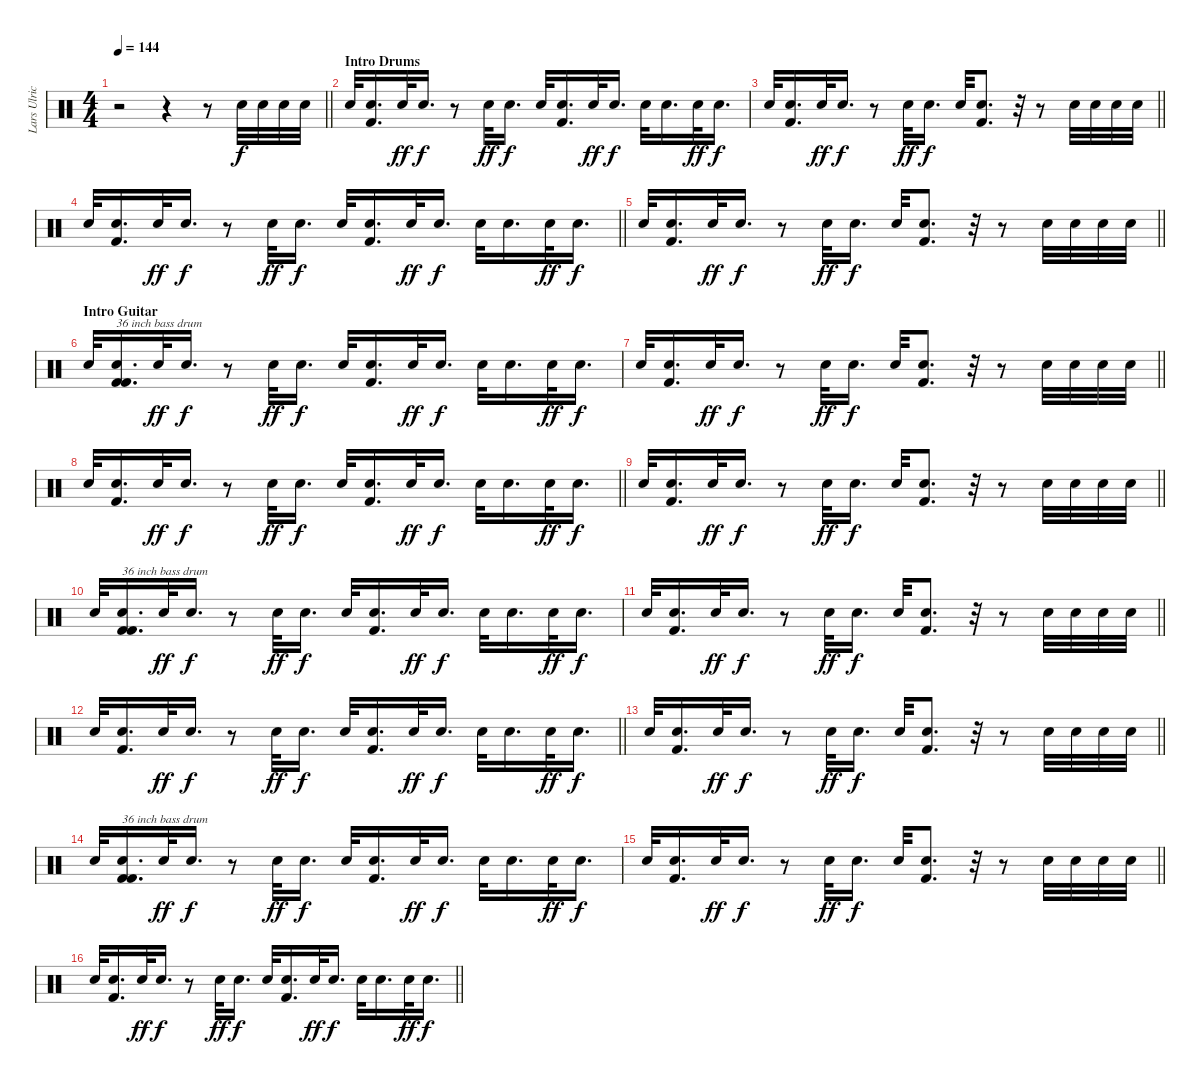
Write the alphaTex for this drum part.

\track ("Lars Ulrich" "Lars Ulric") {instrument percussion}
\staff {score}
\articulation defaults
\ts (4 4)
\tempo 144
\clef neutral
\barLineRight lightlight
\ks c
r.2{dy f} r.4 r.8 "Snare (hit) 2".32 "Snare (hit) 2".32 "Snare (hit) 2".32 "Snare (hit) 2".32 |
\section ("" "Intro Drums")
"Snare (hit) 2".32 ("Snare (hit) 2" "Kick (hit) 2").16{d} "Snare (hit) 2".32{dy ff} "Snare (hit) 2".16{d dy f} r.8 "Snare (hit) 2".32{dy ff} "Snare (hit) 2".16{d dy f} "Snare (hit) 2".32 ("Snare (hit) 2" "Kick (hit) 2").16{d} "Snare (hit) 2".32{dy ff} "Snare (hit) 2".16{d dy f} "Snare (hit) 2".32 "Snare (hit) 2".16{d} "Snare (hit) 2".32{dy ff} "Snare (hit) 2".16{d dy f} |
\barLineRight lightlight "Snare (hit) 2".32
("Snare (hit) 2" "Kick (hit) 2").16{d} "Snare (hit) 2".32{dy ff} "Snare (hit) 2".16{d dy f} r.8 "Snare (hit) 2".32{dy ff} "Snare (hit) 2".16{d dy f} "Snare (hit) 2".32 ("Snare (hit) 2" "Kick (hit) 2").8{d} r.32 r.8 "Snare (hit) 2".32 "Snare (hit) 2".32 "Snare (hit) 2".32 "Snare (hit) 2".32 |
\barLineRight lightlight "Snare (hit) 2".32
("Snare (hit) 2" "Kick (hit) 2").16{d} "Snare (hit) 2".32{dy ff} "Snare (hit) 2".16{d dy f} r.8 "Snare (hit) 2".32{dy ff} "Snare (hit) 2".16{d dy f} "Snare (hit) 2".32 ("Snare (hit) 2" "Kick (hit) 2").16{d} "Snare (hit) 2".32{dy ff} "Snare (hit) 2".16{d dy f} "Snare (hit) 2".32 "Snare (hit) 2".16{d} "Snare (hit) 2".32{dy ff} "Snare (hit) 2".16{d dy f} |
\barLineRight lightlight "Snare (hit) 2".32
("Snare (hit) 2" "Kick (hit) 2").16{d} "Snare (hit) 2".32{dy ff} "Snare (hit) 2".16{d dy f} r.8 "Snare (hit) 2".32{dy ff} "Snare (hit) 2".16{d dy f} "Snare (hit) 2".32 ("Snare (hit) 2" "Kick (hit) 2").8{d} r.32 r.8 "Snare (hit) 2".32 "Snare (hit) 2".32 "Snare (hit) 2".32 "Snare (hit) 2".32 |
\section ("" "Intro Guitar")
"Snare (hit) 2".32 ("Snare (hit) 2" "Kick (hit) 2" "Kick (hit) 2").16{d txt "36 inch bass drum"} "Snare (hit) 2".32{dy ff} "Snare (hit) 2".16{d dy f} r.8 "Snare (hit) 2".32{dy ff} "Snare (hit) 2".16{d dy f} "Snare (hit) 2".32 ("Snare (hit) 2" "Kick (hit) 2").16{d} "Snare (hit) 2".32{dy ff} "Snare (hit) 2".16{d dy f} "Snare (hit) 2".32 "Snare (hit) 2".16{d} "Snare (hit) 2".32{dy ff} "Snare (hit) 2".16{d dy f} |
\barLineRight lightlight "Snare (hit) 2".32
("Snare (hit) 2" "Kick (hit) 2").16{d} "Snare (hit) 2".32{dy ff} "Snare (hit) 2".16{d dy f} r.8 "Snare (hit) 2".32{dy ff} "Snare (hit) 2".16{d dy f} "Snare (hit) 2".32 ("Snare (hit) 2" "Kick (hit) 2").8{d} r.32 r.8 "Snare (hit) 2".32 "Snare (hit) 2".32 "Snare (hit) 2".32 "Snare (hit) 2".32 |
\barLineRight lightlight "Snare (hit) 2".32
("Snare (hit) 2" "Kick (hit) 2").16{d} "Snare (hit) 2".32{dy ff} "Snare (hit) 2".16{d dy f} r.8 "Snare (hit) 2".32{dy ff} "Snare (hit) 2".16{d dy f} "Snare (hit) 2".32 ("Snare (hit) 2" "Kick (hit) 2").16{d} "Snare (hit) 2".32{dy ff} "Snare (hit) 2".16{d dy f} "Snare (hit) 2".32 "Snare (hit) 2".16{d} "Snare (hit) 2".32{dy ff} "Snare (hit) 2".16{d dy f} |
\barLineRight lightlight "Snare (hit) 2".32
("Snare (hit) 2" "Kick (hit) 2").16{d} "Snare (hit) 2".32{dy ff} "Snare (hit) 2".16{d dy f} r.8 "Snare (hit) 2".32{dy ff} "Snare (hit) 2".16{d dy f} "Snare (hit) 2".32 ("Snare (hit) 2" "Kick (hit) 2").8{d} r.32 r.8 "Snare (hit) 2".32 "Snare (hit) 2".32 "Snare (hit) 2".32 "Snare (hit) 2".32 |
"Snare (hit) 2".32 ("Snare (hit) 2" "Kick (hit) 2" "Kick (hit) 2").16{d txt "36 inch bass drum"} "Snare (hit) 2".32{dy ff} "Snare (hit) 2".16{d dy f} r.8 "Snare (hit) 2".32{dy ff} "Snare (hit) 2".16{d dy f} "Snare (hit) 2".32 ("Snare (hit) 2" "Kick (hit) 2").16{d} "Snare (hit) 2".32{dy ff} "Snare (hit) 2".16{d dy f} "Snare (hit) 2".32 "Snare (hit) 2".16{d} "Snare (hit) 2".32{dy ff} "Snare (hit) 2".16{d dy f} |
\barLineRight lightlight "Snare (hit) 2".32
("Snare (hit) 2" "Kick (hit) 2").16{d} "Snare (hit) 2".32{dy ff} "Snare (hit) 2".16{d dy f} r.8 "Snare (hit) 2".32{dy ff} "Snare (hit) 2".16{d dy f} "Snare (hit) 2".32 ("Snare (hit) 2" "Kick (hit) 2").8{d} r.32 r.8 "Snare (hit) 2".32 "Snare (hit) 2".32 "Snare (hit) 2".32 "Snare (hit) 2".32 |
\barLineRight lightlight "Snare (hit) 2".32
("Snare (hit) 2" "Kick (hit) 2").16{d} "Snare (hit) 2".32{dy ff} "Snare (hit) 2".16{d dy f} r.8 "Snare (hit) 2".32{dy ff} "Snare (hit) 2".16{d dy f} "Snare (hit) 2".32 ("Snare (hit) 2" "Kick (hit) 2").16{d} "Snare (hit) 2".32{dy ff} "Snare (hit) 2".16{d dy f} "Snare (hit) 2".32 "Snare (hit) 2".16{d} "Snare (hit) 2".32{dy ff} "Snare (hit) 2".16{d dy f} |
\barLineRight lightlight "Snare (hit) 2".32
("Snare (hit) 2" "Kick (hit) 2").16{d} "Snare (hit) 2".32{dy ff} "Snare (hit) 2".16{d dy f} r.8 "Snare (hit) 2".32{dy ff} "Snare (hit) 2".16{d dy f} "Snare (hit) 2".32 ("Snare (hit) 2" "Kick (hit) 2").8{d} r.32 r.8 "Snare (hit) 2".32 "Snare (hit) 2".32 "Snare (hit) 2".32 "Snare (hit) 2".32 |
"Snare (hit) 2".32 ("Snare (hit) 2" "Kick (hit) 2" "Kick (hit) 2").16{d txt "36 inch bass drum"} "Snare (hit) 2".32{dy ff} "Snare (hit) 2".16{d dy f} r.8 "Snare (hit) 2".32{dy ff} "Snare (hit) 2".16{d dy f} "Snare (hit) 2".32 ("Snare (hit) 2" "Kick (hit) 2").16{d} "Snare (hit) 2".32{dy ff} "Snare (hit) 2".16{d dy f} "Snare (hit) 2".32 "Snare (hit) 2".16{d} "Snare (hit) 2".32{dy ff} "Snare (hit) 2".16{d dy f} |
\barLineRight lightlight "Snare (hit) 2".32
("Snare (hit) 2" "Kick (hit) 2").16{d} "Snare (hit) 2".32{dy ff} "Snare (hit) 2".16{d dy f} r.8 "Snare (hit) 2".32{dy ff} "Snare (hit) 2".16{d dy f} "Snare (hit) 2".32 ("Snare (hit) 2" "Kick (hit) 2").8{d} r.32 r.8 "Snare (hit) 2".32 "Snare (hit) 2".32 "Snare (hit) 2".32 "Snare (hit) 2".32 |
\barLineRight lightlight "Snare (hit) 2".32
("Snare (hit) 2" "Kick (hit) 2").16{d} "Snare (hit) 2".32{dy ff} "Snare (hit) 2".16{d dy f} r.8 "Snare (hit) 2".32{dy ff} "Snare (hit) 2".16{d dy f} "Snare (hit) 2".32 ("Snare (hit) 2" "Kick (hit) 2").16{d} "Snare (hit) 2".32{dy ff} "Snare (hit) 2".16{d dy f} "Snare (hit) 2".32 "Snare (hit) 2".16{d} "Snare (hit) 2".32{dy ff} "Snare (hit) 2".16{d dy f}
